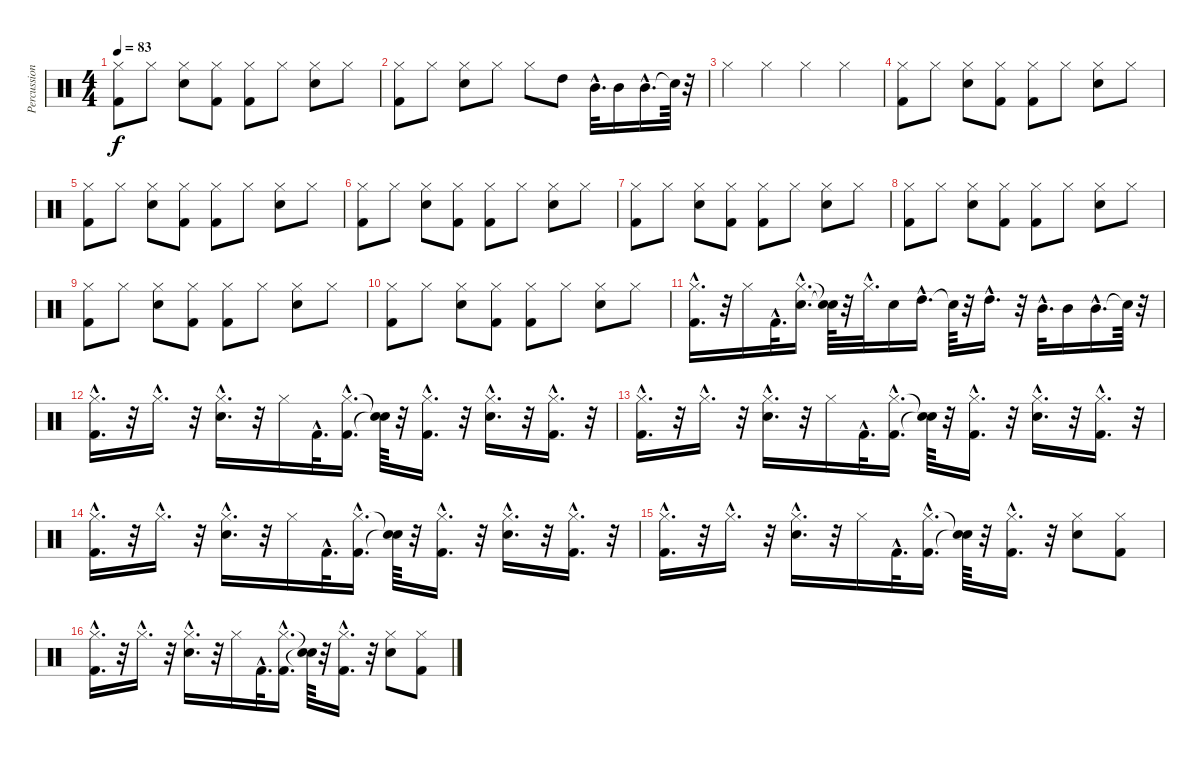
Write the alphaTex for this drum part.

\track ("Percussion" "Percussion") {instrument percussion}
\staff {score}
\articulation defaults
\ts (4 4)
\tempo 83
\clef neutral
\ks c
("Kick (hit) 2" "Hi-Hat (closed)").8{dy f} "Hi-Hat (closed)".8 ("Hi-Hat (closed)" "Snare (hit) 2").8 ("Hi-Hat (closed)" "Kick (hit) 2").8 ("Kick (hit) 2" "Hi-Hat (closed)").8 "Hi-Hat (closed)".8 ("Hi-Hat (closed)" "Snare (hit) 2").8 "Hi-Hat (closed)".8 |
("Kick (hit) 2" "Hi-Hat (closed)").8 "Hi-Hat (closed)".8 ("Hi-Hat (closed)" "Snare (hit) 2").8 "Hi-Hat (closed)".8 "Hi-Hat (closed)".8 "High Tom (hit)".8 "Mid Tom (hit)"{hac}.32{d} "Mid Tom (hit)".16 "Mid Tom (hit)"{hac}.16{d} "Snare (hit)"{t}.64 r.32 |
"Hi-Hat (closed)".4 "Hi-Hat (closed)".4 "Hi-Hat (closed)".4 "Hi-Hat (closed)".4 |
("Kick (hit) 2" "Hi-Hat (closed)").8 "Hi-Hat (closed)".8 ("Hi-Hat (closed)" "Snare (hit) 2").8 ("Hi-Hat (closed)" "Kick (hit) 2").8 ("Kick (hit) 2" "Hi-Hat (closed)").8 "Hi-Hat (closed)".8 ("Hi-Hat (closed)" "Snare (hit) 2").8 "Hi-Hat (closed)".8 |
("Kick (hit) 2" "Hi-Hat (closed)").8 "Hi-Hat (closed)".8 ("Hi-Hat (closed)" "Snare (hit) 2").8 ("Hi-Hat (closed)" "Kick (hit) 2").8 ("Kick (hit) 2" "Hi-Hat (closed)").8 "Hi-Hat (closed)".8 ("Hi-Hat (closed)" "Snare (hit) 2").8 "Hi-Hat (closed)".8 |
("Kick (hit) 2" "Hi-Hat (closed)").8 "Hi-Hat (closed)".8 ("Hi-Hat (closed)" "Snare (hit) 2").8 ("Hi-Hat (closed)" "Kick (hit) 2").8 ("Kick (hit) 2" "Hi-Hat (closed)").8 "Hi-Hat (closed)".8 ("Hi-Hat (closed)" "Snare (hit) 2").8 "Hi-Hat (closed)".8 |
("Kick (hit) 2" "Hi-Hat (closed)").8 "Hi-Hat (closed)".8 ("Hi-Hat (closed)" "Snare (hit) 2").8 ("Hi-Hat (closed)" "Kick (hit) 2").8 ("Kick (hit) 2" "Hi-Hat (closed)").8 "Hi-Hat (closed)".8 ("Hi-Hat (closed)" "Snare (hit) 2").8 "Hi-Hat (closed)".8 |
("Kick (hit) 2" "Hi-Hat (closed)").8 "Hi-Hat (closed)".8 ("Hi-Hat (closed)" "Snare (hit) 2").8 ("Hi-Hat (closed)" "Kick (hit) 2").8 ("Kick (hit) 2" "Hi-Hat (closed)").8 "Hi-Hat (closed)".8 ("Hi-Hat (closed)" "Snare (hit) 2").8 "Hi-Hat (closed)".8 |
("Kick (hit) 2" "Hi-Hat (closed)").8 "Hi-Hat (closed)".8 ("Hi-Hat (closed)" "Snare (hit) 2").8 ("Hi-Hat (closed)" "Kick (hit) 2").8 ("Kick (hit) 2" "Hi-Hat (closed)").8 "Hi-Hat (closed)".8 ("Hi-Hat (closed)" "Snare (hit) 2").8 "Hi-Hat (closed)".8 |
("Kick (hit) 2" "Hi-Hat (closed)").8 "Hi-Hat (closed)".8 ("Hi-Hat (closed)" "Snare (hit) 2").8 ("Hi-Hat (closed)" "Kick (hit) 2").8 ("Kick (hit) 2" "Hi-Hat (closed)").8 "Hi-Hat (closed)".8 ("Hi-Hat (closed)" "Snare (hit) 2").8 "Hi-Hat (closed)".8 |
("Hi-Hat (closed)"{hac} "Kick (hit) 2"{hac}).16{d} r.32 "Hi-Hat (closed)".16 "Kick (hit) 2"{hac}.32{d} ("Hi-Hat (closed)"{hac} "Snare (hit) 2"{hac}).16{d} ("Snare (hit)"{t} "Snare (hit)"{t}).64 r.32 "Hi-Hat (closed)"{hac}.32{d} "Snare (hit) 2".16 "High Tom (hit)"{hac}.16{d} "Snare (hit)"{t}.64 r.32 "High Tom (hit)"{hac}.16{d} r.32 "Mid Tom (hit)"{hac}.32{d} "Mid Tom (hit)".16 "Mid Tom (hit)"{hac}.16{d} "Snare (hit)"{t}.64 r.32 |
("Kick (hit) 2"{hac} "Hi-Hat (closed)"{hac}).16{d} r.32 "Hi-Hat (closed)"{hac}.16{d} r.32 ("Hi-Hat (closed)"{hac} "Snare (hit) 2"{hac}).16{d} r.32 "Hi-Hat (closed)".16 "Kick (hit) 2"{hac}.32{d} ("Hi-Hat (closed)"{hac} "Kick (hit) 2"{hac}).16{d} ("Snare (hit)"{t} "Snare (hit)"{t}).64 r.32 ("Hi-Hat (closed)"{hac} "Kick (hit) 2"{hac}).16{d} r.32 ("Hi-Hat (closed)"{hac} "Snare (hit) 2"{hac}).16{d} r.32 ("Hi-Hat (closed)"{hac} "Kick (hit) 2"{hac}).16{d} r.32 |
("Hi-Hat (closed)"{hac} "Kick (hit) 2"{hac}).16{d} r.32 "Hi-Hat (closed)"{hac}.16{d} r.32 ("Hi-Hat (closed)"{hac} "Snare (hit) 2"{hac}).16{d} r.32 "Hi-Hat (closed)".16 "Kick (hit) 2"{hac}.32{d} ("Hi-Hat (closed)"{hac} "Kick (hit) 2"{hac}).16{d} ("Snare (hit)"{t} "Snare (hit)"{t}).64 r.32 ("Hi-Hat (closed)"{hac} "Kick (hit) 2"{hac}).16{d} r.32 ("Snare (hit) 2"{hac} "Hi-Hat (closed)"{hac}).16{d} r.32 ("Hi-Hat (closed)"{hac} "Kick (hit) 2"{hac}).16{d} r.32 |
("Hi-Hat (closed)"{hac} "Kick (hit) 2"{hac}).16{d} r.32 "Hi-Hat (closed)"{hac}.16{d} r.32 ("Snare (hit) 2"{hac} "Hi-Hat (closed)"{hac}).16{d} r.32 "Hi-Hat (closed)".16 "Kick (hit) 2"{hac}.32{d} ("Hi-Hat (closed)"{hac} "Kick (hit) 2"{hac}).16{d} ("Snare (hit)"{t} "Snare (hit)"{t}).64 r.32 ("Hi-Hat (closed)"{hac} "Kick (hit) 2"{hac}).16{d} r.32 ("Hi-Hat (closed)"{hac} "Snare (hit) 2"{hac}).16{d} r.32 ("Hi-Hat (closed)"{hac} "Kick (hit) 2"{hac}).16{d} r.32 |
("Hi-Hat (closed)"{hac} "Kick (hit) 2"{hac}).16{d} r.32 "Hi-Hat (closed)"{hac}.16{d} r.32 ("Hi-Hat (closed)"{hac} "Snare (hit) 2"{hac}).16{d} r.32 "Hi-Hat (closed)".16 "Kick (hit) 2"{hac}.32{d} ("Hi-Hat (closed)"{hac} "Kick (hit) 2"{hac}).16{d} ("Snare (hit)"{t} "Snare (hit)"{t}).64 r.32 ("Hi-Hat (closed)"{hac} "Kick (hit) 2"{hac}).16{d} r.32 ("Snare (hit) 2" "Hi-Hat (closed)").8 ("Kick (hit) 2" "Hi-Hat (closed)").8 |
("Hi-Hat (closed)"{hac} "Kick (hit) 2"{hac}).16{d} r.32 "Hi-Hat (closed)"{hac}.16{d} r.32 ("Snare (hit) 2"{hac} "Hi-Hat (closed)"{hac}).16{d} r.32 "Hi-Hat (closed)".16 "Kick (hit) 2"{hac}.32{d} ("Hi-Hat (closed)"{hac} "Kick (hit) 2"{hac}).16{d} ("Snare (hit)"{t} "Snare (hit)"{t}).64 r.32 ("Hi-Hat (closed)"{hac} "Kick (hit) 2"{hac}).16{d} r.32 ("Snare (hit) 2" "Hi-Hat (closed)").8 ("Hi-Hat (closed)" "Kick (hit) 2").8
